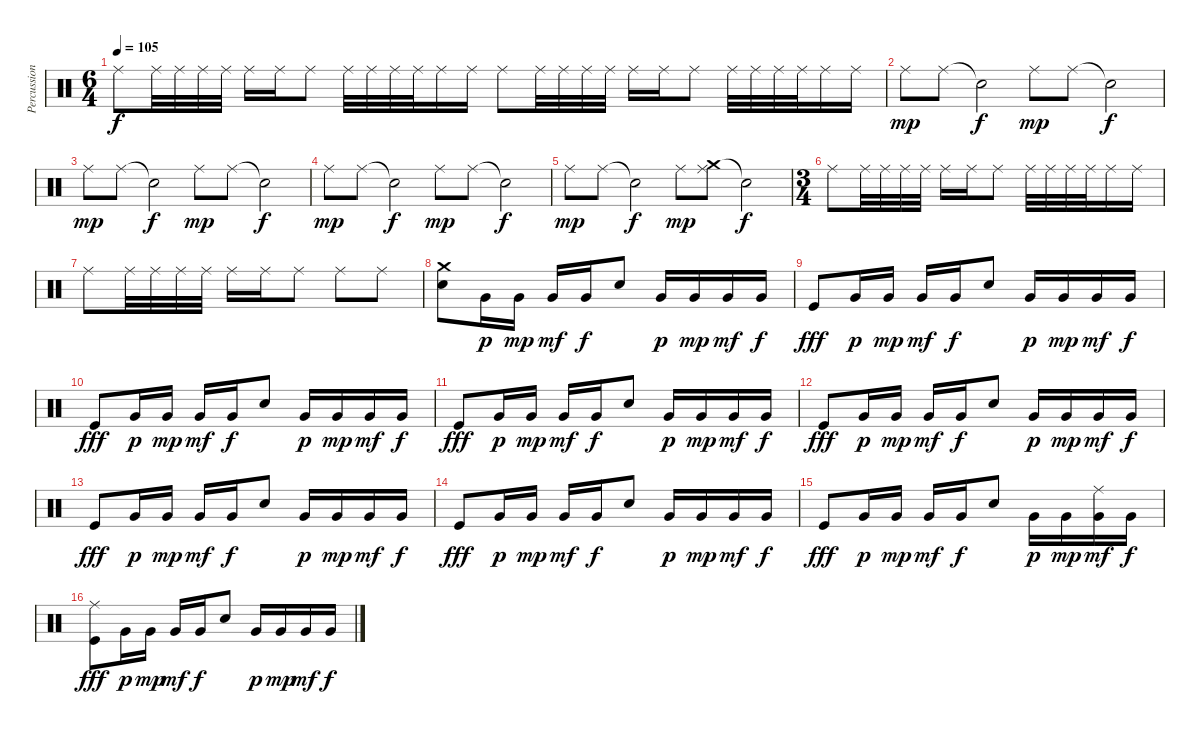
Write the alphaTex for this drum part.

\track ("Percussions" "Percussion") {instrument percussion}
\staff {score}
\articulation defaults
\ts (6 4)
\tempo 105
\clef neutral
\ks c "Ride (middle)".8{dy f} "Ride (middle)".32 "Ride (middle)".32 "Ride (middle)".32 "Ride (middle)".32 "Ride (middle)".16 "Ride (middle)".16 "Ride (middle)".8 "Ride (middle)".32 "Ride (middle)".32 "Ride (middle)".32 "Ride (middle)".32 "Ride (middle)".16 "Ride (middle)".16 "Ride (middle)".8 "Ride (middle)".32 "Ride (middle)".32 "Ride (middle)".32 "Ride (middle)".32 "Ride (middle)".16 "Ride (middle)".16 "Ride (middle)".8 "Ride (middle)".32 "Ride (middle)".32 "Ride (middle)".32 "Ride (middle)".32 "Ride (middle)".16 "Ride (middle)".16
|
"Ride (middle)".8{dy mp} "Ride (middle)".8 "Snare (hit)"{t}.2{dy f} "Ride (middle)".8{dy mp} "Ride (middle)".8 "Snare (hit)"{t}.2{dy f} |
"Ride (middle)".8{dy mp} "Ride (middle)".8 "Snare (hit)"{t}.2{dy f} "Ride (middle)".8{dy mp} "Ride (middle)".8 "Snare (hit)"{t}.2{dy f} |
"Ride (middle)".8{dy mp} "Ride (middle)".8 "Snare (hit)"{t}.2{dy f} "Ride (middle)".8{dy mp} "Ride (middle)".8 "Snare (hit)"{t}.2{dy f} |
"Ride (middle)".8{dy mp} "Ride (middle)".8 "Snare (hit)"{t}.2{dy f} "Ride (middle)".8{dy mp} ("Crash medium (hit)" "Ride (middle)").8 "Snare (hit)"{t}.2{dy f} |
\ts (3 4)
"Ride (middle)".8 "Ride (middle)".32 "Ride (middle)".32 "Ride (middle)".32 "Ride (middle)".32 "Ride (middle)".16 "Ride (middle)".16 "Ride (middle)".8 "Ride (middle)".32 "Ride (middle)".32 "Ride (middle)".32 "Ride (middle)".32 "Ride (middle)".16 "Ride (middle)".16 |
"Ride (middle)".8 "Ride (middle)".32 "Ride (middle)".32 "Ride (middle)".32 "Ride (middle)".32 "Ride (middle)".16 "Ride (middle)".16 "Ride (middle)".8 "Ride (middle)".8 "Ride (middle)".8 |
("Crash medium (hit)" "Snare (hit) 2").8 "Very Low Tom (hit)".16{dy p} "Very Low Tom (hit)".16{dy mp} "Very Low Tom (hit)".16{dy mf} "Very Low Tom (hit)".16{dy f} "Snare (hit) 2".8 "Very Low Tom (hit)".16{dy p} "Very Low Tom (hit)".16{dy mp} "Very Low Tom (hit)".16{dy mf} "Very Low Tom (hit)".16{dy f} |
"Kick (hit)".8{dy fff} "Very Low Tom (hit)".16{dy p} "Very Low Tom (hit)".16{dy mp} "Very Low Tom (hit)".16{dy mf} "Very Low Tom (hit)".16{dy f} "Snare (hit) 2".8 "Very Low Tom (hit)".16{dy p} "Very Low Tom (hit)".16{dy mp} "Very Low Tom (hit)".16{dy mf} "Very Low Tom (hit)".16{dy f} |
"Kick (hit)".8{dy fff} "Very Low Tom (hit)".16{dy p} "Very Low Tom (hit)".16{dy mp} "Very Low Tom (hit)".16{dy mf} "Very Low Tom (hit)".16{dy f} "Snare (hit) 2".8 "Very Low Tom (hit)".16{dy p} "Very Low Tom (hit)".16{dy mp} "Very Low Tom (hit)".16{dy mf} "Very Low Tom (hit)".16{dy f} |
"Kick (hit)".8{dy fff} "Very Low Tom (hit)".16{dy p} "Very Low Tom (hit)".16{dy mp} "Very Low Tom (hit)".16{dy mf} "Very Low Tom (hit)".16{dy f} "Snare (hit) 2".8 "Very Low Tom (hit)".16{dy p} "Very Low Tom (hit)".16{dy mp} "Very Low Tom (hit)".16{dy mf} "Very Low Tom (hit)".16{dy f} |
"Kick (hit)".8{dy fff} "Very Low Tom (hit)".16{dy p} "Very Low Tom (hit)".16{dy mp} "Very Low Tom (hit)".16{dy mf} "Very Low Tom (hit)".16{dy f} "Snare (hit) 2".8 "Very Low Tom (hit)".16{dy p} "Very Low Tom (hit)".16{dy mp} "Very Low Tom (hit)".16{dy mf} "Very Low Tom (hit)".16{dy f} |
"Kick (hit)".8{dy fff} "Very Low Tom (hit)".16{dy p} "Very Low Tom (hit)".16{dy mp} "Very Low Tom (hit)".16{dy mf} "Very Low Tom (hit)".16{dy f} "Snare (hit) 2".8 "Very Low Tom (hit)".16{dy p} "Very Low Tom (hit)".16{dy mp} "Very Low Tom (hit)".16{dy mf} "Very Low Tom (hit)".16{dy f} |
"Kick (hit)".8{dy fff} "Very Low Tom (hit)".16{dy p} "Very Low Tom (hit)".16{dy mp} "Very Low Tom (hit)".16{dy mf} "Very Low Tom (hit)".16{dy f} "Snare (hit) 2".8 "Very Low Tom (hit)".16{dy p} "Very Low Tom (hit)".16{dy mp} "Very Low Tom (hit)".16{dy mf} "Very Low Tom (hit)".16{dy f} |
"Kick (hit)".8{dy fff} "Very Low Tom (hit)".16{dy p} "Very Low Tom (hit)".16{dy mp} "Very Low Tom (hit)".16{dy mf} "Very Low Tom (hit)".16{dy f} "Snare (hit) 2".8 "Very Low Tom (hit)".16{dy p} "Very Low Tom (hit)".16{dy mp} ("Ride (middle)" "Very Low Tom (hit)").16{dy mf} "Very Low Tom (hit)".16{dy f} |
("Ride (middle)" "Kick (hit)").8{dy fff} "Very Low Tom (hit)".16{dy p} "Very Low Tom (hit)".16{dy mp} "Very Low Tom (hit)".16{dy mf} "Very Low Tom (hit)".16{dy f} "Snare (hit) 2".8 "Very Low Tom (hit)".16{dy p} "Very Low Tom (hit)".16{dy mp} "Very Low Tom (hit)".16{dy mf} "Very Low Tom (hit)".16{dy f}
